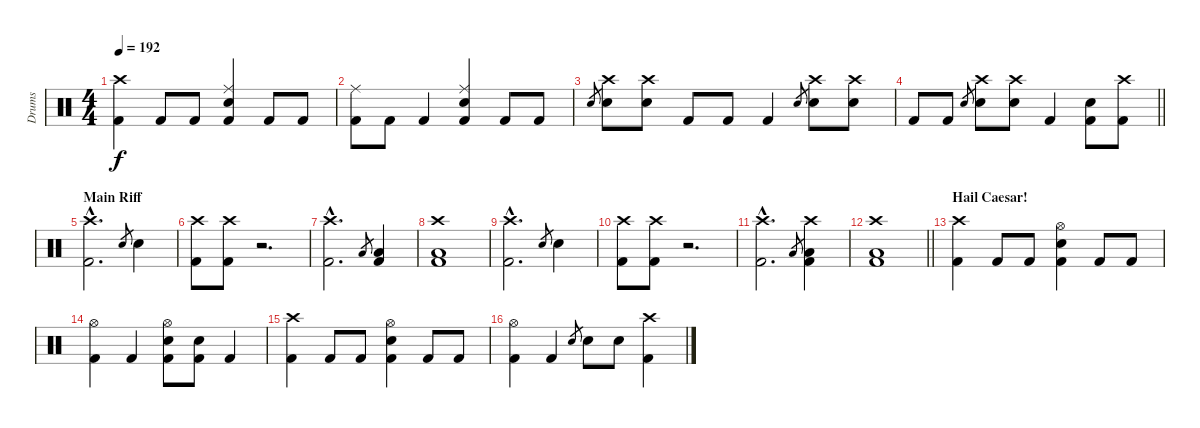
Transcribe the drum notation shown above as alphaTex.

\track ("Drums" "Drums") {instrument percussion}
\staff {score}
\articulation defaults
\ts (4 4)
\tempo 192
\clef neutral
\ks c
("Crash high (hit)" "Kick (hit) 2").4{dy f} "Kick (hit) 2".8 "Kick (hit) 2".8 ("Ride (middle)" "Snare (hit) 2" "Kick (hit) 2").4 "Kick (hit) 2".8 "Kick (hit) 2".8 |
("Ride (middle)" "Kick (hit) 2").8 "Kick (hit) 2".8 "Kick (hit) 2".4 ("Ride (middle)" "Snare (hit) 2" "Kick (hit) 2").4 "Kick (hit) 2".8 "Kick (hit) 2".8 |
"Snare (hit) 2".8{gr} ("Crash high (hit)" "Snare (hit) 2").8 ("Crash high (hit)" "Snare (hit) 2").8 "Kick (hit) 2".8 "Kick (hit) 2".8 "Kick (hit) 2".4 "Snare (hit) 2".8{gr} ("Crash high (hit)" "Snare (hit) 2").8 ("Crash high (hit)" "Snare (hit) 2").8 |
\barLineRight lightlight "Kick (hit) 2".8 "Kick (hit) 2".8 "Snare (hit) 2".8{gr}
("Crash high (hit)" "Snare (hit) 2").8 ("Crash high (hit)" "Snare (hit) 2").8 "Kick (hit) 2".4 ("Snare (hit) 2" "Kick (hit) 2").8 ("Crash high (hit)" "Kick (hit) 2").8 |
\section ("" "Main Riff")
("Crash high (hit)"{hac} "Kick (hit) 2"{hac}).2{d} "Snare (hit) 2".8{gr} "Snare (hit) 2".4 |
("Crash high (hit)" "Kick (hit) 2").8 ("Crash high (hit)" "Kick (hit) 2").8 r.2{d} |
("Crash high (hit)"{hac} "Kick (hit) 2"{hac}).2{d} "Low Tom (hit)".8{gr} ("Low Tom (hit)" "Kick (hit) 2").4 |
("Crash high (hit)" "Low Tom (hit)" "Kick (hit) 2").1 |
("Crash high (hit)"{hac} "Kick (hit) 2"{hac}).2{d} "Snare (hit) 2".8{gr} "Snare (hit) 2".4 |
("Crash high (hit)" "Kick (hit) 2").8 ("Crash high (hit)" "Kick (hit) 2").8 r.2{d} |
("Crash high (hit)"{hac} "Kick (hit) 2"{hac}).2{d} "Low Tom (hit)".8{gr} ("Crash high (hit)" "Low Tom (hit)" "Kick (hit) 2").4 |
\barLineRight lightlight
("Crash high (hit)" "Low Tom (hit)" "Kick (hit) 2").1 |
\section ("" "Hail Caesar!")
("Crash high (hit)" "Kick (hit) 2").4 "Kick (hit) 2".8 "Kick (hit) 2".8 ("Hi-Hat (open)" "Snare (hit) 2" "Kick (hit) 2").4 "Kick (hit) 2".8 "Kick (hit) 2".8 |
("Hi-Hat (open)" "Kick (hit) 2").4 "Kick (hit) 2".4 ("Hi-Hat (open)" "Snare (hit) 2" "Kick (hit) 2").8 ("Snare (hit) 2" "Kick (hit) 2").8 "Kick (hit) 2".4 |
("Crash high (hit)" "Kick (hit) 2").4 "Kick (hit) 2".8 "Kick (hit) 2".8 ("Hi-Hat (open)" "Snare (hit) 2" "Kick (hit) 2").4 "Kick (hit) 2".8 "Kick (hit) 2".8 |
("Hi-Hat (open)" "Kick (hit) 2").4 "Kick (hit) 2".4 "Snare (hit) 2".8{gr} "Snare (hit) 2".8 "Snare (hit) 2".8 ("Crash high (hit)" "Kick (hit) 2").4
